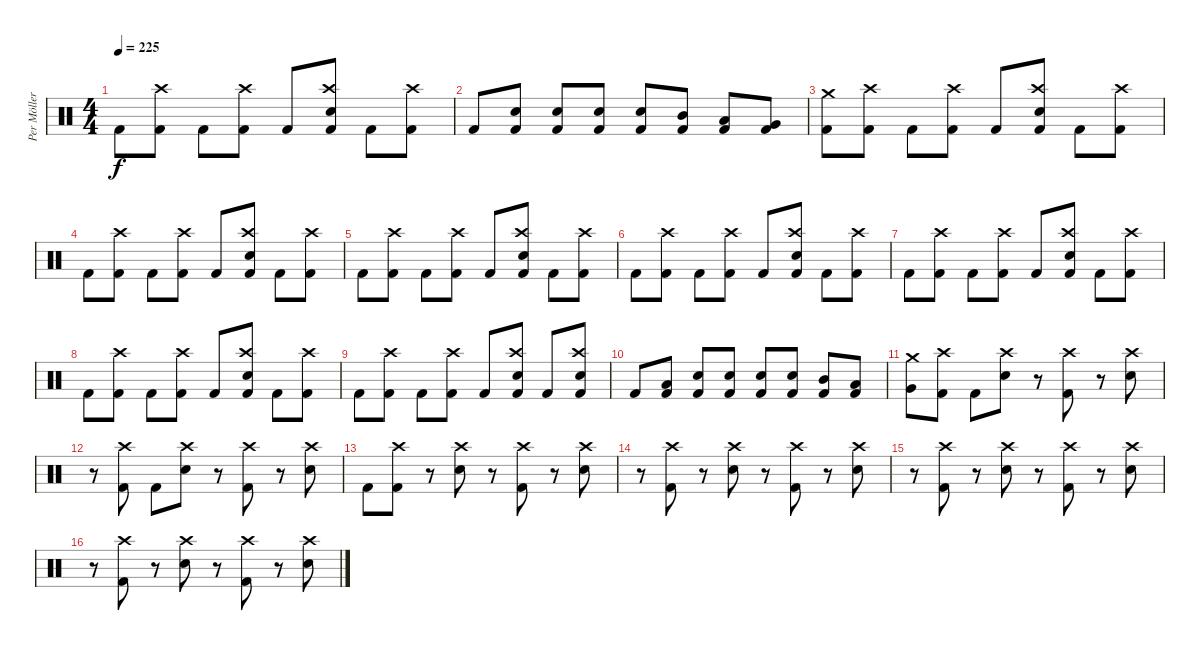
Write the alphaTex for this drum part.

\track ("Per Möller Jensen" "Per Möller") {instrument percussion}
\staff {score}
\articulation defaults
\ts (4 4)
\tempo 225
\clef neutral
\ks c "Kick (hit) 2".8{dy f}
("Crash high (hit)" "Kick (hit) 2").8 "Kick (hit) 2".8 ("Crash high (hit)" "Kick (hit) 2").8 "Kick (hit) 2".8 ("Crash high (hit)" "Snare (hit) 2" "Kick (hit) 2").8 "Kick (hit) 2".8 ("Crash high (hit)" "Kick (hit) 2").8 |
"Kick (hit) 2".8 ("Snare (hit) 2" "Kick (hit) 2").8 ("Snare (hit) 2" "Kick (hit) 2").8 ("Snare (hit) 2" "Kick (hit) 2").8 ("Snare (hit) 2" "Kick (hit) 2").8 ("Mid Tom (hit)" "Kick (hit) 2").8 ("Low Tom (hit)" "Kick (hit) 2").8 ("Very Low Tom (hit)" "Kick (hit) 2").8 |
("Crash medium (hit)" "Kick (hit) 2").8 ("Crash high (hit)" "Kick (hit) 2").8 "Kick (hit) 2".8 ("Crash high (hit)" "Kick (hit) 2").8 "Kick (hit) 2".8 ("Crash high (hit)" "Snare (hit) 2" "Kick (hit) 2").8 "Kick (hit) 2".8 ("Crash high (hit)" "Kick (hit) 2").8 |
"Kick (hit) 2".8 ("Crash high (hit)" "Kick (hit) 2").8 "Kick (hit) 2".8 ("Crash high (hit)" "Kick (hit) 2").8 "Kick (hit) 2".8 ("Crash high (hit)" "Snare (hit) 2" "Kick (hit) 2").8 "Kick (hit) 2".8 ("Crash high (hit)" "Kick (hit) 2").8 |
"Kick (hit) 2".8 ("Crash high (hit)" "Kick (hit) 2").8 "Kick (hit) 2".8 ("Crash high (hit)" "Kick (hit) 2").8 "Kick (hit) 2".8 ("Crash high (hit)" "Snare (hit) 2" "Kick (hit) 2").8 "Kick (hit) 2".8 ("Crash high (hit)" "Kick (hit) 2").8 |
"Kick (hit) 2".8 ("Crash high (hit)" "Kick (hit) 2").8 "Kick (hit) 2".8 ("Crash high (hit)" "Kick (hit) 2").8 "Kick (hit) 2".8 ("Crash high (hit)" "Snare (hit) 2" "Kick (hit) 2").8 "Kick (hit) 2".8 ("Crash high (hit)" "Kick (hit) 2").8 |
"Kick (hit) 2".8 ("Crash high (hit)" "Kick (hit) 2").8 "Kick (hit) 2".8 ("Crash high (hit)" "Kick (hit) 2").8 "Kick (hit) 2".8 ("Crash high (hit)" "Snare (hit) 2" "Kick (hit) 2").8 "Kick (hit) 2".8 ("Crash high (hit)" "Kick (hit) 2").8 |
"Kick (hit) 2".8 ("Crash high (hit)" "Kick (hit) 2").8 "Kick (hit) 2".8 ("Crash high (hit)" "Kick (hit) 2").8 "Kick (hit) 2".8 ("Crash high (hit)" "Snare (hit) 2" "Kick (hit) 2").8 "Kick (hit) 2".8 ("Crash high (hit)" "Kick (hit) 2").8 |
"Kick (hit) 2".8 ("Crash high (hit)" "Kick (hit) 2").8 "Kick (hit) 2".8 ("Crash high (hit)" "Kick (hit) 2").8 "Kick (hit) 2".8 ("Crash high (hit)" "Snare (hit) 2" "Kick (hit) 2").8 "Kick (hit) 2".8 ("Crash high (hit)" "Snare (hit) 2" "Kick (hit) 2").8 |
"Kick (hit) 2".8 ("Low Floor Tom (hit)" "Kick (hit) 2").8 ("Snare (hit) 2" "Kick (hit) 2").8 ("Snare (hit) 2" "Kick (hit) 2").8 ("Snare (hit) 2" "Kick (hit) 2").8 ("Snare (hit) 2" "Kick (hit) 2").8 ("Mid Tom (hit)" "Kick (hit) 2").8 ("Low Tom (hit)" "Kick (hit) 2").8 |
("Crash medium (hit)" "Very Low Tom (hit)").8 ("Crash high (hit)" "Kick (hit) 2").8 "Kick (hit) 2".8 ("Crash high (hit)" "Snare (hit) 2").8 r.8 ("Crash high (hit)" "Kick (hit) 2").8 r.8 ("Crash high (hit)" "Snare (hit) 2").8 |
r.8 ("Crash high (hit)" "Kick (hit) 2").8 "Kick (hit) 2".8 ("Crash high (hit)" "Snare (hit) 2").8 r.8 ("Crash high (hit)" "Kick (hit) 2").8 r.8 ("Crash high (hit)" "Snare (hit) 2").8 |
"Kick (hit) 2".8 ("Crash high (hit)" "Kick (hit) 2").8 r.8 ("Crash high (hit)" "Snare (hit) 2").8 r.8 ("Crash high (hit)" "Kick (hit) 2").8 r.8 ("Crash high (hit)" "Snare (hit) 2").8 |
r.8 ("Crash high (hit)" "Kick (hit) 2").8 r.8 ("Crash high (hit)" "Snare (hit) 2").8 r.8 ("Crash high (hit)" "Kick (hit) 2").8 r.8 ("Crash high (hit)" "Snare (hit) 2").8 |
r.8 ("Crash high (hit)" "Kick (hit) 2").8 r.8 ("Crash high (hit)" "Snare (hit) 2").8 r.8 ("Crash high (hit)" "Kick (hit) 2").8 r.8 ("Crash high (hit)" "Snare (hit) 2").8 |
r.8 ("Crash high (hit)" "Kick (hit) 2").8 r.8 ("Crash high (hit)" "Snare (hit) 2").8 r.8 ("Crash high (hit)" "Kick (hit) 2").8 r.8 ("Crash high (hit)" "Snare (hit) 2").8
